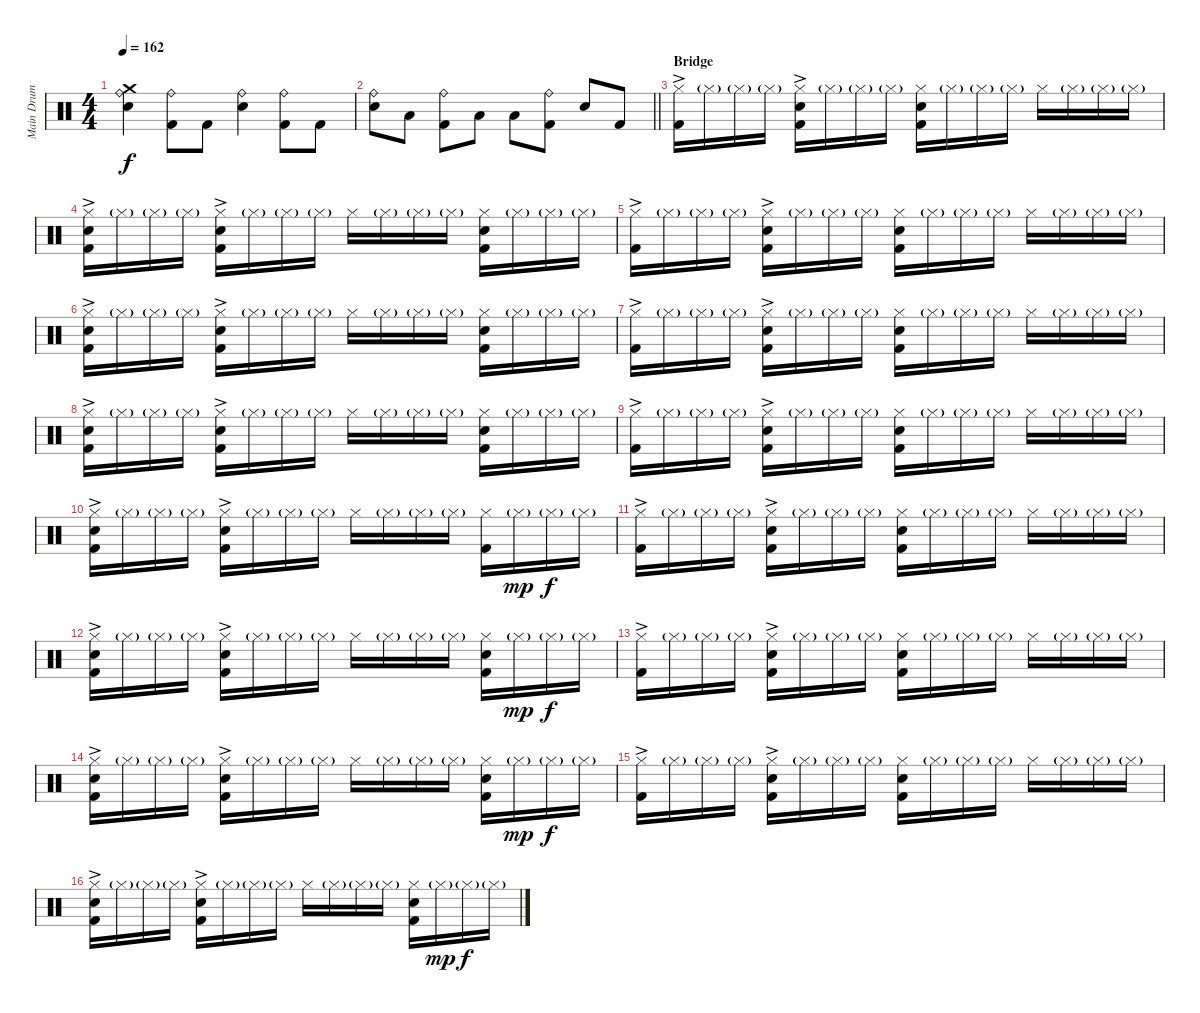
\track ("Main Drum Track" "Main Drum ") {instrument percussion}
\staff {score}
\articulation defaults
\ts (4 4)
\tempo 162
\clef neutral
\ks c
("Ride (bell)" "Crash medium (hit)" "Electric Snare (hit)").4{dy f} ("Ride (bell)" "Kick (hit) 2").8 "Kick (hit) 2".8 ("Ride (bell)" "Electric Snare (hit)").4 ("Ride (bell)" "Kick (hit) 2").8 "Kick (hit) 2".8 |
\barLineRight lightlight
("Ride (bell)" "Electric Snare (hit)").8 "Low Floor Tom (hit)".8 ("Ride (bell)" "Kick (hit) 2").8 "Low Tom (hit)".8 "Low Floor Tom (hit)".8 ("Ride (bell)" "Kick (hit) 2").8 "Electric Snare (hit)".8 "Kick (hit) 2".8 |
\section ("" "Bridge")
("Hi-Hat (closed)"{ac} "Kick (hit) 2").16 "Hi-Hat (closed)"{g}.16 "Hi-Hat (closed)"{g}.16 "Hi-Hat (closed)"{g}.16 ("Hand Clap (hit)" "Hi-Hat (closed)"{ac} "Kick (hit) 2").16 "Hi-Hat (closed)"{g}.16 "Hi-Hat (closed)"{g}.16 "Hi-Hat (closed)"{g}.16 ("Hand Clap (hit)" "Hi-Hat (closed)" "Kick (hit) 2").16 "Hi-Hat (closed)"{g}.16 "Hi-Hat (closed)"{g}.16 "Hi-Hat (closed)"{g}.16 "Hi-Hat (closed)".16 "Hi-Hat (closed)"{g}.16 "Hi-Hat (closed)"{g}.16 "Hi-Hat (closed)"{g}.16 |
("Hand Clap (hit)" "Hi-Hat (closed)"{ac} "Kick (hit) 2").16 "Hi-Hat (closed)"{g}.16 "Hi-Hat (closed)"{g}.16 "Hi-Hat (closed)"{g}.16 ("Hand Clap (hit)" "Hi-Hat (closed)"{ac} "Kick (hit) 2").16 "Hi-Hat (closed)"{g}.16 "Hi-Hat (closed)"{g}.16 "Hi-Hat (closed)"{g}.16 "Hi-Hat (closed)".16 "Hi-Hat (closed)"{g}.16 "Hi-Hat (closed)"{g}.16 "Hi-Hat (closed)"{g}.16 ("Hand Clap (hit)" "Hi-Hat (closed)" "Kick (hit) 2").16 "Hi-Hat (closed)"{g}.16 "Hi-Hat (closed)"{g}.16 "Hi-Hat (closed)"{g}.16 |
("Hi-Hat (closed)"{ac} "Kick (hit) 2").16 "Hi-Hat (closed)"{g}.16 "Hi-Hat (closed)"{g}.16 "Hi-Hat (closed)"{g}.16 ("Hand Clap (hit)" "Hi-Hat (closed)"{ac} "Kick (hit) 2").16 "Hi-Hat (closed)"{g}.16 "Hi-Hat (closed)"{g}.16 "Hi-Hat (closed)"{g}.16 ("Hand Clap (hit)" "Hi-Hat (closed)" "Kick (hit) 2").16 "Hi-Hat (closed)"{g}.16 "Hi-Hat (closed)"{g}.16 "Hi-Hat (closed)"{g}.16 "Hi-Hat (closed)".16 "Hi-Hat (closed)"{g}.16 "Hi-Hat (closed)"{g}.16 "Hi-Hat (closed)"{g}.16 |
("Hand Clap (hit)" "Hi-Hat (closed)"{ac} "Kick (hit) 2").16 "Hi-Hat (closed)"{g}.16 "Hi-Hat (closed)"{g}.16 "Hi-Hat (closed)"{g}.16 ("Hand Clap (hit)" "Hi-Hat (closed)"{ac} "Kick (hit) 2").16 "Hi-Hat (closed)"{g}.16 "Hi-Hat (closed)"{g}.16 "Hi-Hat (closed)"{g}.16 "Hi-Hat (closed)".16 "Hi-Hat (closed)"{g}.16 "Hi-Hat (closed)"{g}.16 "Hi-Hat (closed)"{g}.16 ("Hand Clap (hit)" "Hi-Hat (closed)" "Kick (hit) 2").16 "Hi-Hat (closed)"{g}.16 "Hi-Hat (closed)"{g}.16 "Hi-Hat (closed)"{g}.16 |
("Hi-Hat (closed)"{ac} "Kick (hit) 2").16 "Hi-Hat (closed)"{g}.16 "Hi-Hat (closed)"{g}.16 "Hi-Hat (closed)"{g}.16 ("Hand Clap (hit)" "Hi-Hat (closed)"{ac} "Kick (hit) 2").16 "Hi-Hat (closed)"{g}.16 "Hi-Hat (closed)"{g}.16 "Hi-Hat (closed)"{g}.16 ("Hand Clap (hit)" "Hi-Hat (closed)" "Kick (hit) 2").16 "Hi-Hat (closed)"{g}.16 "Hi-Hat (closed)"{g}.16 "Hi-Hat (closed)"{g}.16 "Hi-Hat (closed)".16 "Hi-Hat (closed)"{g}.16 "Hi-Hat (closed)"{g}.16 "Hi-Hat (closed)"{g}.16 |
("Hand Clap (hit)" "Hi-Hat (closed)"{ac} "Kick (hit) 2").16 "Hi-Hat (closed)"{g}.16 "Hi-Hat (closed)"{g}.16 "Hi-Hat (closed)"{g}.16 ("Hand Clap (hit)" "Hi-Hat (closed)"{ac} "Kick (hit) 2").16 "Hi-Hat (closed)"{g}.16 "Hi-Hat (closed)"{g}.16 "Hi-Hat (closed)"{g}.16 "Hi-Hat (closed)".16 "Hi-Hat (closed)"{g}.16 "Hi-Hat (closed)"{g}.16 "Hi-Hat (closed)"{g}.16 ("Hand Clap (hit)" "Hi-Hat (closed)" "Kick (hit) 2").16 "Hi-Hat (closed)"{g}.16 "Hi-Hat (closed)"{g}.16 "Hi-Hat (closed)"{g}.16 |
("Hi-Hat (closed)"{ac} "Kick (hit) 2").16 "Hi-Hat (closed)"{g}.16 "Hi-Hat (closed)"{g}.16 "Hi-Hat (closed)"{g}.16 ("Hand Clap (hit)" "Hi-Hat (closed)"{ac} "Kick (hit) 2").16 "Hi-Hat (closed)"{g}.16 "Hi-Hat (closed)"{g}.16 "Hi-Hat (closed)"{g}.16 ("Hand Clap (hit)" "Hi-Hat (closed)" "Kick (hit) 2").16 "Hi-Hat (closed)"{g}.16 "Hi-Hat (closed)"{g}.16 "Hi-Hat (closed)"{g}.16 "Hi-Hat (closed)".16 "Hi-Hat (closed)"{g}.16 "Hi-Hat (closed)"{g}.16 "Hi-Hat (closed)"{g}.16 |
("Hand Clap (hit)" "Hi-Hat (closed)"{ac} "Kick (hit) 2").16 "Hi-Hat (closed)"{g}.16 "Hi-Hat (closed)"{g}.16 "Hi-Hat (closed)"{g}.16 ("Hand Clap (hit)" "Hi-Hat (closed)"{ac} "Kick (hit) 2").16 "Hi-Hat (closed)"{g}.16 "Hi-Hat (closed)"{g}.16 "Hi-Hat (closed)"{g}.16 "Hi-Hat (closed)".16 "Hi-Hat (closed)"{g}.16 "Hi-Hat (closed)"{g}.16 "Hi-Hat (closed)"{g}.16 ("Hi-Hat (closed)" "Kick (hit) 2").16 "Hi-Hat (closed)"{g}.16{dy mp} "Hi-Hat (closed)"{g}.16{dy f} "Hi-Hat (closed)"{g}.16 |
("Hi-Hat (closed)"{ac} "Kick (hit) 2").16 "Hi-Hat (closed)"{g}.16 "Hi-Hat (closed)"{g}.16 "Hi-Hat (closed)"{g}.16 ("Hand Clap (hit)" "Hi-Hat (closed)"{ac} "Kick (hit) 2").16 "Hi-Hat (closed)"{g}.16 "Hi-Hat (closed)"{g}.16 "Hi-Hat (closed)"{g}.16 ("Hand Clap (hit)" "Hi-Hat (closed)" "Kick (hit) 2").16 "Hi-Hat (closed)"{g}.16 "Hi-Hat (closed)"{g}.16 "Hi-Hat (closed)"{g}.16 "Hi-Hat (closed)".16 "Hi-Hat (closed)"{g}.16 "Hi-Hat (closed)"{g}.16 "Hi-Hat (closed)"{g}.16 |
("Hand Clap (hit)" "Hi-Hat (closed)"{ac} "Kick (hit) 2").16 "Hi-Hat (closed)"{g}.16 "Hi-Hat (closed)"{g}.16 "Hi-Hat (closed)"{g}.16 ("Hand Clap (hit)" "Hi-Hat (closed)"{ac} "Kick (hit) 2").16 "Hi-Hat (closed)"{g}.16 "Hi-Hat (closed)"{g}.16 "Hi-Hat (closed)"{g}.16 "Hi-Hat (closed)".16 "Hi-Hat (closed)"{g}.16 "Hi-Hat (closed)"{g}.16 "Hi-Hat (closed)"{g}.16 ("Hand Clap (hit)" "Hi-Hat (closed)" "Kick (hit) 2").16 "Hi-Hat (closed)"{g}.16{dy mp} "Hi-Hat (closed)"{g}.16{dy f} "Hi-Hat (closed)"{g}.16 |
("Hi-Hat (closed)"{ac} "Kick (hit) 2").16 "Hi-Hat (closed)"{g}.16 "Hi-Hat (closed)"{g}.16 "Hi-Hat (closed)"{g}.16 ("Hand Clap (hit)" "Hi-Hat (closed)"{ac} "Kick (hit) 2").16 "Hi-Hat (closed)"{g}.16 "Hi-Hat (closed)"{g}.16 "Hi-Hat (closed)"{g}.16 ("Hand Clap (hit)" "Hi-Hat (closed)" "Kick (hit) 2").16 "Hi-Hat (closed)"{g}.16 "Hi-Hat (closed)"{g}.16 "Hi-Hat (closed)"{g}.16 "Hi-Hat (closed)".16 "Hi-Hat (closed)"{g}.16 "Hi-Hat (closed)"{g}.16 "Hi-Hat (closed)"{g}.16 |
("Hand Clap (hit)" "Hi-Hat (closed)"{ac} "Kick (hit) 2").16 "Hi-Hat (closed)"{g}.16 "Hi-Hat (closed)"{g}.16 "Hi-Hat (closed)"{g}.16 ("Hand Clap (hit)" "Hi-Hat (closed)"{ac} "Kick (hit) 2").16 "Hi-Hat (closed)"{g}.16 "Hi-Hat (closed)"{g}.16 "Hi-Hat (closed)"{g}.16 "Hi-Hat (closed)".16 "Hi-Hat (closed)"{g}.16 "Hi-Hat (closed)"{g}.16 "Hi-Hat (closed)"{g}.16 ("Hand Clap (hit)" "Hi-Hat (closed)" "Kick (hit) 2").16 "Hi-Hat (closed)"{g}.16{dy mp} "Hi-Hat (closed)"{g}.16{dy f} "Hi-Hat (closed)"{g}.16 |
("Hi-Hat (closed)"{ac} "Kick (hit) 2").16 "Hi-Hat (closed)"{g}.16 "Hi-Hat (closed)"{g}.16 "Hi-Hat (closed)"{g}.16 ("Hand Clap (hit)" "Hi-Hat (closed)"{ac} "Kick (hit) 2").16 "Hi-Hat (closed)"{g}.16 "Hi-Hat (closed)"{g}.16 "Hi-Hat (closed)"{g}.16 ("Hand Clap (hit)" "Hi-Hat (closed)" "Kick (hit) 2").16 "Hi-Hat (closed)"{g}.16 "Hi-Hat (closed)"{g}.16 "Hi-Hat (closed)"{g}.16 "Hi-Hat (closed)".16 "Hi-Hat (closed)"{g}.16 "Hi-Hat (closed)"{g}.16 "Hi-Hat (closed)"{g}.16 |
("Hand Clap (hit)" "Hi-Hat (closed)"{ac} "Kick (hit) 2").16 "Hi-Hat (closed)"{g}.16 "Hi-Hat (closed)"{g}.16 "Hi-Hat (closed)"{g}.16 ("Hand Clap (hit)" "Hi-Hat (closed)"{ac} "Kick (hit) 2").16 "Hi-Hat (closed)"{g}.16 "Hi-Hat (closed)"{g}.16 "Hi-Hat (closed)"{g}.16 "Hi-Hat (closed)".16 "Hi-Hat (closed)"{g}.16 "Hi-Hat (closed)"{g}.16 "Hi-Hat (closed)"{g}.16 ("Hand Clap (hit)" "Hi-Hat (closed)" "Kick (hit) 2").16 "Hi-Hat (closed)"{g}.16{dy mp} "Hi-Hat (closed)"{g}.16{dy f} "Hi-Hat (closed)"{g}.16
